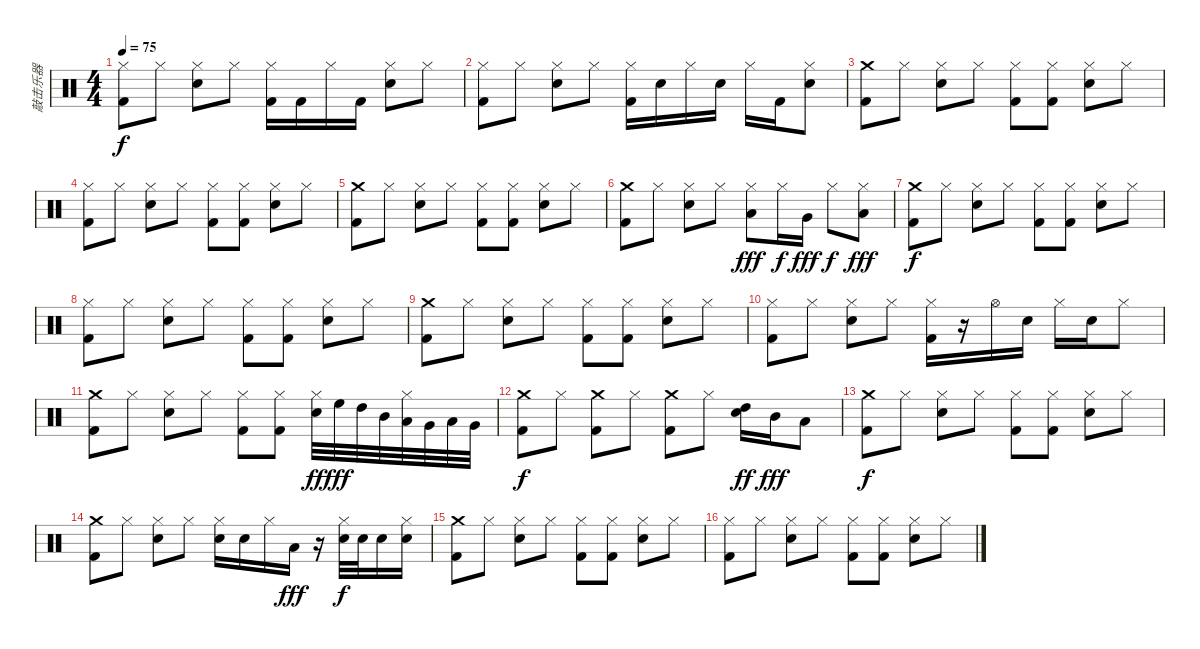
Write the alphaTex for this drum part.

\track ("敲击乐器" "敲击乐器") {instrument percussion}
\staff {score}
\articulation defaults
\ts (4 4)
\tempo 75
\clef neutral
\ks c
("Hi-Hat (closed)" "Kick (hit) 2").8{dy f} "Hi-Hat (closed)".8 ("Hi-Hat (closed)" "Electric Snare (hit)").8 "Hi-Hat (closed)".8 ("Hi-Hat (closed)" "Kick (hit) 2").16 "Kick (hit) 2".16 "Hi-Hat (closed)".16 "Kick (hit) 2".16 ("Hi-Hat (closed)" "Electric Snare (hit)").8 "Hi-Hat (closed)".8 |
("Hi-Hat (closed)" "Kick (hit) 2").8 "Hi-Hat (closed)".8 ("Hi-Hat (closed)" "Electric Snare (hit)").8 "Hi-Hat (closed)".8 ("Hi-Hat (closed)" "Kick (hit) 2").16 "Electric Snare (hit)".16 "Hi-Hat (closed)".16 "Electric Snare (hit)".16 "Hi-Hat (closed)".16 "Kick (hit) 2".16 ("Hi-Hat (closed)" "Electric Snare (hit)").8 |
("Crash medium (hit)" "Kick (hit) 2").8 "Hi-Hat (closed)".8 ("Hi-Hat (closed)" "Electric Snare (hit)").8 "Hi-Hat (closed)".8 ("Hi-Hat (closed)" "Kick (hit) 2").8 ("Hi-Hat (closed)" "Kick (hit) 2").8 ("Hi-Hat (closed)" "Electric Snare (hit)").8 "Hi-Hat (closed)".8 |
("Hi-Hat (closed)" "Kick (hit) 2").8 "Hi-Hat (closed)".8 ("Hi-Hat (closed)" "Electric Snare (hit)").8 "Hi-Hat (closed)".8 ("Hi-Hat (closed)" "Kick (hit) 2").8 ("Hi-Hat (closed)" "Kick (hit) 2").8 ("Hi-Hat (closed)" "Electric Snare (hit)").8 "Hi-Hat (closed)".8 |
("Crash medium (hit)" "Kick (hit) 2").8 "Hi-Hat (closed)".8 ("Hi-Hat (closed)" "Electric Snare (hit)").8 "Hi-Hat (closed)".8 ("Hi-Hat (closed)" "Kick (hit) 2").8 ("Hi-Hat (closed)" "Kick (hit) 2").8 ("Hi-Hat (closed)" "Electric Snare (hit)").8 "Hi-Hat (closed)".8 |
("Crash medium (hit)" "Kick (hit) 2").8 "Hi-Hat (closed)".8 ("Hi-Hat (closed)" "Electric Snare (hit)").8 "Hi-Hat (closed)".8 ("Hi-Hat (closed)" "Low Tom (hit)").8{dy fff} "Hi-Hat (closed)".16{dy f} "Very Low Tom (hit)".16{dy fff} "Hi-Hat (closed)".8{dy f} ("Hi-Hat (closed)" "Low Floor Tom (hit)").8{dy fff} |
("Crash medium (hit)" "Kick (hit) 2").8{dy f} "Hi-Hat (closed)".8 ("Hi-Hat (closed)" "Electric Snare (hit)").8 "Hi-Hat (closed)".8 ("Hi-Hat (closed)" "Kick (hit) 2").8 ("Hi-Hat (closed)" "Kick (hit) 2").8 ("Hi-Hat (closed)" "Electric Snare (hit)").8 "Hi-Hat (closed)".8 |
("Hi-Hat (closed)" "Kick (hit) 2").8 "Hi-Hat (closed)".8 ("Hi-Hat (closed)" "Electric Snare (hit)").8 "Hi-Hat (closed)".8 ("Hi-Hat (closed)" "Kick (hit) 2").8 ("Hi-Hat (closed)" "Kick (hit) 2").8 ("Hi-Hat (closed)" "Electric Snare (hit)").8 "Hi-Hat (closed)".8 |
("Crash medium (hit)" "Kick (hit) 2").8 "Hi-Hat (closed)".8 ("Hi-Hat (closed)" "Electric Snare (hit)").8 "Hi-Hat (closed)".8 ("Hi-Hat (closed)" "Kick (hit) 2").8 ("Hi-Hat (closed)" "Kick (hit) 2").8 ("Hi-Hat (closed)" "Electric Snare (hit)").8 "Hi-Hat (closed)".8 |
("Hi-Hat (closed)" "Kick (hit) 2").8 "Hi-Hat (closed)".8 ("Hi-Hat (closed)" "Electric Snare (hit)").8 "Hi-Hat (closed)".8 ("Hi-Hat (closed)" "Kick (hit) 2").16 r.16 "Hi-Hat (open)".16 "Electric Snare (hit)".16 "Hi-Hat (closed)".16 "Electric Snare (hit)".16 "Hi-Hat (closed)".8 |
("Crash medium (hit)" "Kick (hit) 2").8 "Hi-Hat (closed)".8 ("Hi-Hat (closed)" "Electric Snare (hit)").8 "Hi-Hat (closed)".8 ("Hi-Hat (closed)" "Kick (hit) 2").8 ("Hi-Hat (closed)" "Kick (hit) 2").8 ("Hi-Hat (closed)" "Electric Snare (hit)").32{dy ff} "High Floor Tom (hit)".32{dy fff} "High Tom (hit)".32 "Mid Tom (hit)".32 ("Hi-Hat (closed)" "Low Tom (hit)").32 "Very Low Tom (hit)".32 "Low Floor Tom (hit)".32 "Very Low Tom (hit)".32 |
("Crash medium (hit)" "Kick (hit) 2").8{dy f} "Hi-Hat (closed)".8 ("Crash medium (hit)" "Kick (hit) 2").8 "Hi-Hat (closed)".8 ("Crash medium (hit)" "Kick (hit) 2").8 "Hi-Hat (closed)".8 ("High Tom (hit)" "Electric Snare (hit)").16{dy ff} "Mid Tom (hit)".16{dy fff} "Low Tom (hit)".8 |
("Crash medium (hit)" "Kick (hit) 2").8{dy f} "Hi-Hat (closed)".8 ("Hi-Hat (closed)" "Electric Snare (hit)").8 "Hi-Hat (closed)".8 ("Hi-Hat (closed)" "Kick (hit) 2").8 ("Hi-Hat (closed)" "Kick (hit) 2").8 ("Hi-Hat (closed)" "Electric Snare (hit)").8 "Hi-Hat (closed)".8 |
("Crash medium (hit)" "Kick (hit) 2").8 "Hi-Hat (closed)".8 ("Hi-Hat (closed)" "Electric Snare (hit)").8 "Hi-Hat (closed)".8 ("Hi-Hat (closed)" "Electric Snare (hit)").16 "Electric Snare (hit)".16 "Hi-Hat (closed)".16 "Low Tom (hit)".16{dy fff} r.16 ("Hi-Hat (closed)" "Electric Snare (hit)").32{dy f} "Electric Snare (hit)".32 "Electric Snare (hit)".16 ("Hi-Hat (closed)" "Electric Snare (hit)").16 |
("Crash medium (hit)" "Kick (hit) 2").8 "Hi-Hat (closed)".8 ("Hi-Hat (closed)" "Electric Snare (hit)").8 "Hi-Hat (closed)".8 ("Hi-Hat (closed)" "Kick (hit) 2").8 ("Hi-Hat (closed)" "Kick (hit) 2").8 ("Hi-Hat (closed)" "Electric Snare (hit)").8 "Hi-Hat (closed)".8 |
("Hi-Hat (closed)" "Kick (hit) 2").8 "Hi-Hat (closed)".8 ("Hi-Hat (closed)" "Electric Snare (hit)").8 "Hi-Hat (closed)".8 ("Hi-Hat (closed)" "Kick (hit) 2").8 ("Hi-Hat (closed)" "Kick (hit) 2").8 ("Hi-Hat (closed)" "Electric Snare (hit)").8 "Hi-Hat (closed)".8
